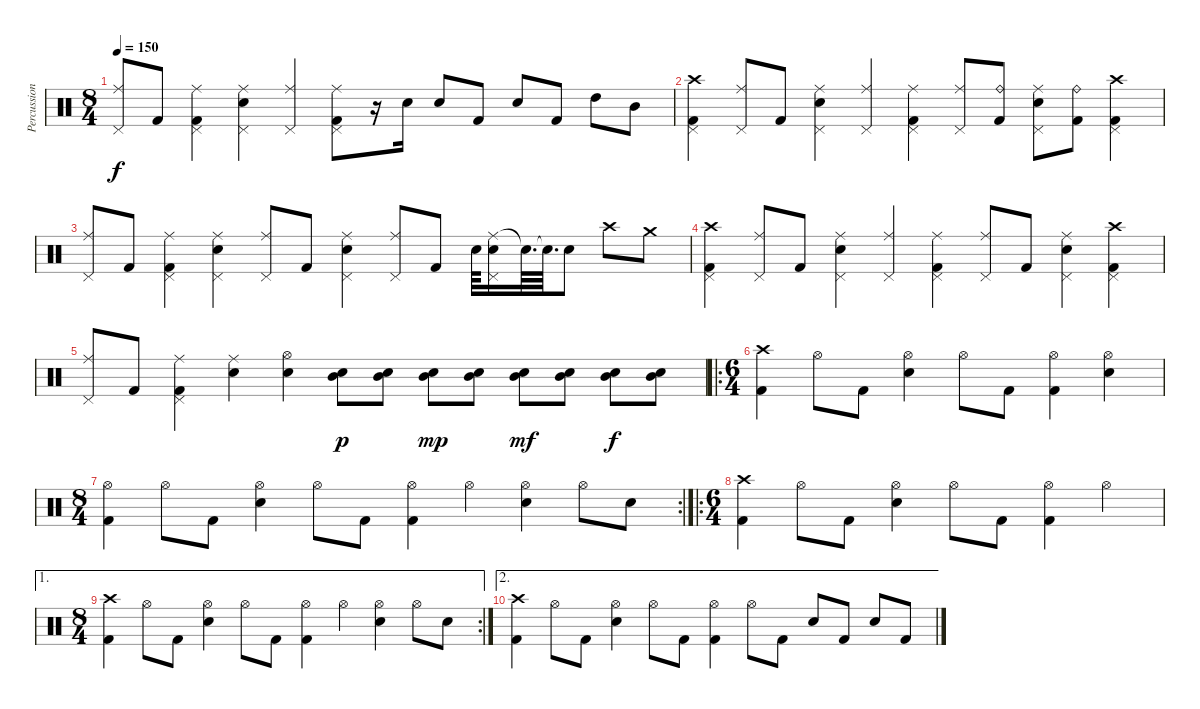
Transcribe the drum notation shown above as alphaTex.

\track ("Percussion" "Percussion") {instrument percussion}
\staff {score}
\articulation defaults
\ts (8 4)
\tempo 150
\clef neutral
\ks c
("Ride (middle)" "Pedal Hi-Hat (hit)").8{dy f} "Kick (hit) 2".8 ("Ride (middle)" "Pedal Hi-Hat (hit)" "Kick (hit) 2").4 ("Ride (middle)" "Pedal Hi-Hat (hit)" "Electric Snare (hit)").4 ("Ride (middle)" "Pedal Hi-Hat (hit)").4 ("Ride (middle)" "Pedal Hi-Hat (hit)" "Kick (hit) 2").8 r.16 "Electric Snare (hit)".16 "Electric Snare (hit)".8 "Kick (hit) 2".8 "Electric Snare (hit)".8 "Kick (hit) 2".8 "High Tom (hit)".8 "Mid Tom (hit)".8 |
("Crash high (hit)" "Pedal Hi-Hat (hit)" "Kick (hit) 2").4 ("Ride (middle)" "Pedal Hi-Hat (hit)").8 "Kick (hit) 2".8 ("Ride (middle)" "Pedal Hi-Hat (hit)" "Electric Snare (hit)").4 ("Ride (middle)" "Pedal Hi-Hat (hit)").4 ("Ride (middle)" "Pedal Hi-Hat (hit)" "Kick (hit) 2").4 ("Ride (middle)" "Pedal Hi-Hat (hit)").8 ("Ride (bell)" "Kick (hit) 2").8 ("Ride (middle)" "Pedal Hi-Hat (hit)" "Electric Snare (hit)").8 ("Ride (bell)" "Kick (hit) 2").8 ("Crash high (hit)" "Pedal Hi-Hat (hit)" "Kick (hit) 2").4 |
("Ride (middle)" "Pedal Hi-Hat (hit)").8 "Kick (hit) 2".8 ("Ride (middle)" "Pedal Hi-Hat (hit)" "Kick (hit) 2").4 ("Ride (middle)" "Pedal Hi-Hat (hit)" "Electric Snare (hit)").4 ("Ride (middle)" "Pedal Hi-Hat (hit)").8 "Kick (hit) 2".8 ("Ride (middle)" "Pedal Hi-Hat (hit)" "Electric Snare (hit)").4 ("Ride (middle)" "Pedal Hi-Hat (hit)").8 "Kick (hit) 2".8 "Electric Snare (hit)".64 ("Ride (middle)" "Pedal Hi-Hat (hit)" "Electric Snare (hit)").16 "Snare (hit)"{t}.64{d} "Snare (hit)"{t}.64{d} "Electric Snare (hit)".8 "Crash high (hit)".8 "Crash medium (hit)".8 |
("Crash high (hit)" "Pedal Hi-Hat (hit)" "Kick (hit) 2").4 ("Ride (middle)" "Pedal Hi-Hat (hit)").8 "Kick (hit) 2".8 ("Ride (middle)" "Pedal Hi-Hat (hit)" "Electric Snare (hit)").4 ("Ride (middle)" "Pedal Hi-Hat (hit)").4 ("Ride (middle)" "Pedal Hi-Hat (hit)" "Kick (hit) 2").4 ("Ride (middle)" "Pedal Hi-Hat (hit)").8 "Kick (hit) 2".8 ("Ride (middle)" "Pedal Hi-Hat (hit)" "Electric Snare (hit)").4 ("Crash high (hit)" "Pedal Hi-Hat (hit)" "Kick (hit) 2").4 |
("Ride (middle)" "Pedal Hi-Hat (hit)").8 "Kick (hit) 2".8 ("Ride (middle)" "Pedal Hi-Hat (hit)" "Kick (hit) 2").4 ("Ride (middle)" "Electric Snare (hit)").4 ("Hi-Hat (open)" "Electric Snare (hit)").4 ("Mid Tom (hit)" "Electric Snare (hit)").8{dy p} ("Mid Tom (hit)" "Electric Snare (hit)").8 ("Mid Tom (hit)" "Electric Snare (hit)").8{dy mp} ("Mid Tom (hit)" "Electric Snare (hit)").8 ("Mid Tom (hit)" "Electric Snare (hit)").8{dy mf} ("Mid Tom (hit)" "Electric Snare (hit)").8 ("Mid Tom (hit)" "Electric Snare (hit)").8{dy f} ("Mid Tom (hit)" "Electric Snare (hit)").8 |
\ro
\ts (6 4)
("Crash high (hit)" "Kick (hit) 2").4{volume 15} "Hi-Hat (open)".8 "Kick (hit) 2".8 ("Hi-Hat (open)" "Electric Snare (hit)").4 "Hi-Hat (open)".8 "Kick (hit) 2".8 ("Hi-Hat (open)" "Kick (hit) 2").4 ("Hi-Hat (open)" "Electric Snare (hit)").4 |
\rc 2
\ts (8 4)
("Hi-Hat (open)" "Kick (hit) 2").4 "Hi-Hat (open)".8 "Kick (hit) 2".8 ("Hi-Hat (open)" "Electric Snare (hit)").4 "Hi-Hat (open)".8 "Kick (hit) 2".8 ("Hi-Hat (open)" "Kick (hit) 2").4 "Hi-Hat (open)".4 ("Hi-Hat (open)" "Electric Snare (hit)").4 "Hi-Hat (open)".8 "Electric Snare (hit)".8 |
\ro
\ts (6 4)
("Crash high (hit)" "Kick (hit) 2").4 "Hi-Hat (open)".8 "Kick (hit) 2".8 ("Hi-Hat (open)" "Electric Snare (hit)").4 "Hi-Hat (open)".8 "Kick (hit) 2".8 ("Hi-Hat (open)" "Kick (hit) 2").4 "Hi-Hat (open)".4 |
\ae 1
\rc 2
\ts (8 4)
("Crash high (hit)" "Kick (hit) 2").4 "Hi-Hat (open)".8 "Kick (hit) 2".8 ("Hi-Hat (open)" "Electric Snare (hit)").4 "Hi-Hat (open)".8 "Kick (hit) 2".8 ("Hi-Hat (open)" "Kick (hit) 2").4 "Hi-Hat (open)".4 ("Hi-Hat (open)" "Electric Snare (hit)").4 "Hi-Hat (open)".8 "Electric Snare (hit)".8 |
\ae 2
("Crash high (hit)" "Kick (hit) 2").4 "Hi-Hat (open)".8 "Kick (hit) 2".8 ("Hi-Hat (open)" "Electric Snare (hit)").4 "Hi-Hat (open)".8 "Kick (hit) 2".8 ("Hi-Hat (open)" "Kick (hit) 2").4 "Hi-Hat (open)".8 "Kick (hit) 2".8 "Electric Snare (hit)".8 "Kick (hit) 2".8 "Electric Snare (hit)".8 "Kick (hit) 2".8
